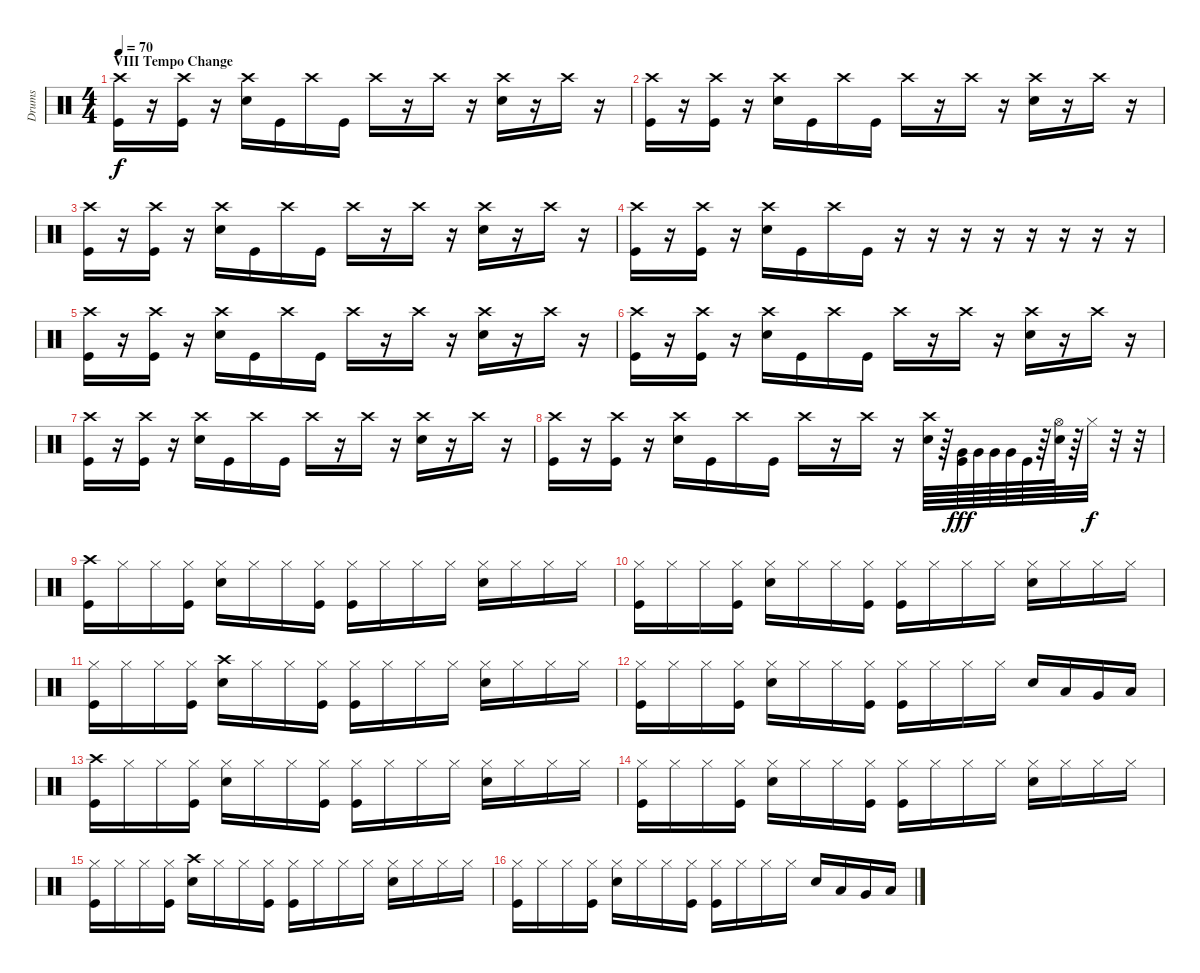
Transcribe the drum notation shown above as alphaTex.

\track ("Drums" "Drums") {instrument percussion}
\staff {score}
\articulation defaults
\ts (4 4)
\section ("" "VIII Tempo Change")
\tempo 70
\clef neutral
\ks c
("Crash high (hit)" "Kick (hit)").16{dy f} r.16 ("Crash high (hit)" "Kick (hit)").16 r.16 ("Crash high (hit)" "Electric Snare (hit)").16 "Kick (hit)".16 "Crash high (hit)".16 "Kick (hit)".16 "Crash high (hit)".16 r.16 "Crash high (hit)".16 r.16 ("Crash high (hit)" "Electric Snare (hit)").16 r.16 "Crash high (hit)".16 r.16 |
("Crash high (hit)" "Kick (hit)").16 r.16 ("Crash high (hit)" "Kick (hit)").16 r.16 ("Crash high (hit)" "Electric Snare (hit)").16 "Kick (hit)".16 "Crash high (hit)".16 "Kick (hit)".16 "Crash high (hit)".16 r.16 "Crash high (hit)".16 r.16 ("Crash high (hit)" "Electric Snare (hit)").16 r.16 "Crash high (hit)".16 r.16 |
("Crash high (hit)" "Kick (hit)").16 r.16 ("Crash high (hit)" "Kick (hit)").16 r.16 ("Crash high (hit)" "Electric Snare (hit)").16 "Kick (hit)".16 "Crash high (hit)".16 "Kick (hit)".16 "Crash high (hit)".16 r.16 "Crash high (hit)".16 r.16 ("Crash high (hit)" "Electric Snare (hit)").16 r.16 "Crash high (hit)".16 r.16 |
("Crash high (hit)" "Kick (hit)").16 r.16 ("Crash high (hit)" "Kick (hit)").16 r.16 ("Crash high (hit)" "Electric Snare (hit)").16 "Kick (hit)".16 "Crash high (hit)".16 "Kick (hit)".16 r.16 r.16 r.16 r.16 r.16 r.16 r.16 r.16 |
("Crash high (hit)" "Kick (hit)").16 r.16 ("Crash high (hit)" "Kick (hit)").16 r.16 ("Crash high (hit)" "Electric Snare (hit)").16 "Kick (hit)".16 "Crash high (hit)".16 "Kick (hit)".16 "Crash high (hit)".16 r.16 "Crash high (hit)".16 r.16 ("Crash high (hit)" "Electric Snare (hit)").16 r.16 "Crash high (hit)".16 r.16 |
("Crash high (hit)" "Kick (hit)").16 r.16 ("Crash high (hit)" "Kick (hit)").16 r.16 ("Crash high (hit)" "Electric Snare (hit)").16 "Kick (hit)".16 "Crash high (hit)".16 "Kick (hit)".16 "Crash high (hit)".16 r.16 "Crash high (hit)".16 r.16 ("Crash high (hit)" "Electric Snare (hit)").16 r.16 "Crash high (hit)".16 r.16 |
("Crash high (hit)" "Kick (hit)").16 r.16 ("Crash high (hit)" "Kick (hit)").16 r.16 ("Crash high (hit)" "Electric Snare (hit)").16 "Kick (hit)".16 "Crash high (hit)".16 "Kick (hit)".16 "Crash high (hit)".16 r.16 "Crash high (hit)".16 r.16 ("Crash high (hit)" "Electric Snare (hit)").16 r.16 "Crash high (hit)".16 r.16 |
("Crash high (hit)" "Kick (hit)").16 r.16 ("Crash high (hit)" "Kick (hit)").16 r.16 ("Crash high (hit)" "Electric Snare (hit)").16 "Kick (hit)".16 "Crash high (hit)".16 "Kick (hit)".16 "Crash high (hit)".16 r.16 "Crash high (hit)".16 r.16 ("Crash high (hit)" "Electric Snare (hit)").64 r.64 ("Very Low Tom (hit)" "Kick (hit)").64{dy fff} "Very Low Tom (hit)".64 "Very Low Tom (hit)".64 "Very Low Tom (hit)".64 "Kick (hit)".64 r.64 ("Hi-Hat (open)" "Electric Snare (hit)").64 r.64 "Hi-Hat (closed)".32{dy f} r.32 r.32 |
("Crash high (hit)" "Kick (hit)").16 "Hi-Hat (closed)".16 "Hi-Hat (closed)".16 ("Hi-Hat (closed)" "Kick (hit)").16 ("Hi-Hat (closed)" "Electric Snare (hit)").16 "Hi-Hat (closed)".16 "Hi-Hat (closed)".16 ("Hi-Hat (closed)" "Kick (hit)").16 ("Hi-Hat (closed)" "Kick (hit)").16 "Hi-Hat (closed)".16 "Hi-Hat (closed)".16 "Hi-Hat (closed)".16 ("Hi-Hat (closed)" "Electric Snare (hit)").16 "Hi-Hat (closed)".16 "Hi-Hat (closed)".16 "Hi-Hat (closed)".16 |
("Hi-Hat (closed)" "Kick (hit)").16 "Hi-Hat (closed)".16 "Hi-Hat (closed)".16 ("Hi-Hat (closed)" "Kick (hit)").16 ("Hi-Hat (closed)" "Electric Snare (hit)").16 "Hi-Hat (closed)".16 "Hi-Hat (closed)".16 ("Hi-Hat (closed)" "Kick (hit)").16 ("Hi-Hat (closed)" "Kick (hit)").16 "Hi-Hat (closed)".16 "Hi-Hat (closed)".16 "Hi-Hat (closed)".16 ("Hi-Hat (closed)" "Electric Snare (hit)").16 "Hi-Hat (closed)".16 "Hi-Hat (closed)".16 "Hi-Hat (closed)".16 |
("Hi-Hat (closed)" "Kick (hit)").16 "Hi-Hat (closed)".16 "Hi-Hat (closed)".16 ("Hi-Hat (closed)" "Kick (hit)").16 ("Crash high (hit)" "Electric Snare (hit)").16 "Hi-Hat (closed)".16 "Hi-Hat (closed)".16 ("Hi-Hat (closed)" "Kick (hit)").16 ("Hi-Hat (closed)" "Kick (hit)").16 "Hi-Hat (closed)".16 "Hi-Hat (closed)".16 "Hi-Hat (closed)".16 ("Hi-Hat (closed)" "Electric Snare (hit)").16 "Hi-Hat (closed)".16 "Hi-Hat (closed)".16 "Hi-Hat (closed)".16 |
("Hi-Hat (closed)" "Kick (hit)").16 "Hi-Hat (closed)".16 "Hi-Hat (closed)".16 ("Hi-Hat (closed)" "Kick (hit)").16 ("Hi-Hat (closed)" "Electric Snare (hit)").16 "Hi-Hat (closed)".16 "Hi-Hat (closed)".16 ("Hi-Hat (closed)" "Kick (hit)").16 ("Hi-Hat (closed)" "Kick (hit)").16 "Hi-Hat (closed)".16 "Hi-Hat (closed)".16 "Hi-Hat (closed)".16 "Electric Snare (hit)".16 "Low Tom (hit)".16 "Very Low Tom (hit)".16 "Low Floor Tom (hit)".16 |
("Crash high (hit)" "Kick (hit)").16 "Hi-Hat (closed)".16 "Hi-Hat (closed)".16 ("Hi-Hat (closed)" "Kick (hit)").16 ("Hi-Hat (closed)" "Electric Snare (hit)").16 "Hi-Hat (closed)".16 "Hi-Hat (closed)".16 ("Hi-Hat (closed)" "Kick (hit)").16 ("Hi-Hat (closed)" "Kick (hit)").16 "Hi-Hat (closed)".16 "Hi-Hat (closed)".16 "Hi-Hat (closed)".16 ("Hi-Hat (closed)" "Electric Snare (hit)").16 "Hi-Hat (closed)".16 "Hi-Hat (closed)".16 "Hi-Hat (closed)".16 |
("Hi-Hat (closed)" "Kick (hit)").16 "Hi-Hat (closed)".16 "Hi-Hat (closed)".16 ("Hi-Hat (closed)" "Kick (hit)").16 ("Hi-Hat (closed)" "Electric Snare (hit)").16 "Hi-Hat (closed)".16 "Hi-Hat (closed)".16 ("Hi-Hat (closed)" "Kick (hit)").16 ("Hi-Hat (closed)" "Kick (hit)").16 "Hi-Hat (closed)".16 "Hi-Hat (closed)".16 "Hi-Hat (closed)".16 ("Hi-Hat (closed)" "Electric Snare (hit)").16 "Hi-Hat (closed)".16 "Hi-Hat (closed)".16 "Hi-Hat (closed)".16 |
("Hi-Hat (closed)" "Kick (hit)").16 "Hi-Hat (closed)".16 "Hi-Hat (closed)".16 ("Hi-Hat (closed)" "Kick (hit)").16 ("Crash high (hit)" "Electric Snare (hit)").16 "Hi-Hat (closed)".16 "Hi-Hat (closed)".16 ("Hi-Hat (closed)" "Kick (hit)").16 ("Hi-Hat (closed)" "Kick (hit)").16 "Hi-Hat (closed)".16 "Hi-Hat (closed)".16 "Hi-Hat (closed)".16 ("Hi-Hat (closed)" "Electric Snare (hit)").16 "Hi-Hat (closed)".16 "Hi-Hat (closed)".16 "Hi-Hat (closed)".16 |
("Hi-Hat (closed)" "Kick (hit)").16 "Hi-Hat (closed)".16 "Hi-Hat (closed)".16 ("Hi-Hat (closed)" "Kick (hit)").16 ("Hi-Hat (closed)" "Electric Snare (hit)").16 "Hi-Hat (closed)".16 "Hi-Hat (closed)".16 ("Hi-Hat (closed)" "Kick (hit)").16 ("Hi-Hat (closed)" "Kick (hit)").16 "Hi-Hat (closed)".16 "Hi-Hat (closed)".16 "Hi-Hat (closed)".16 "Electric Snare (hit)".16 "Low Tom (hit)".16 "Very Low Tom (hit)".16 "Low Floor Tom (hit)".16
